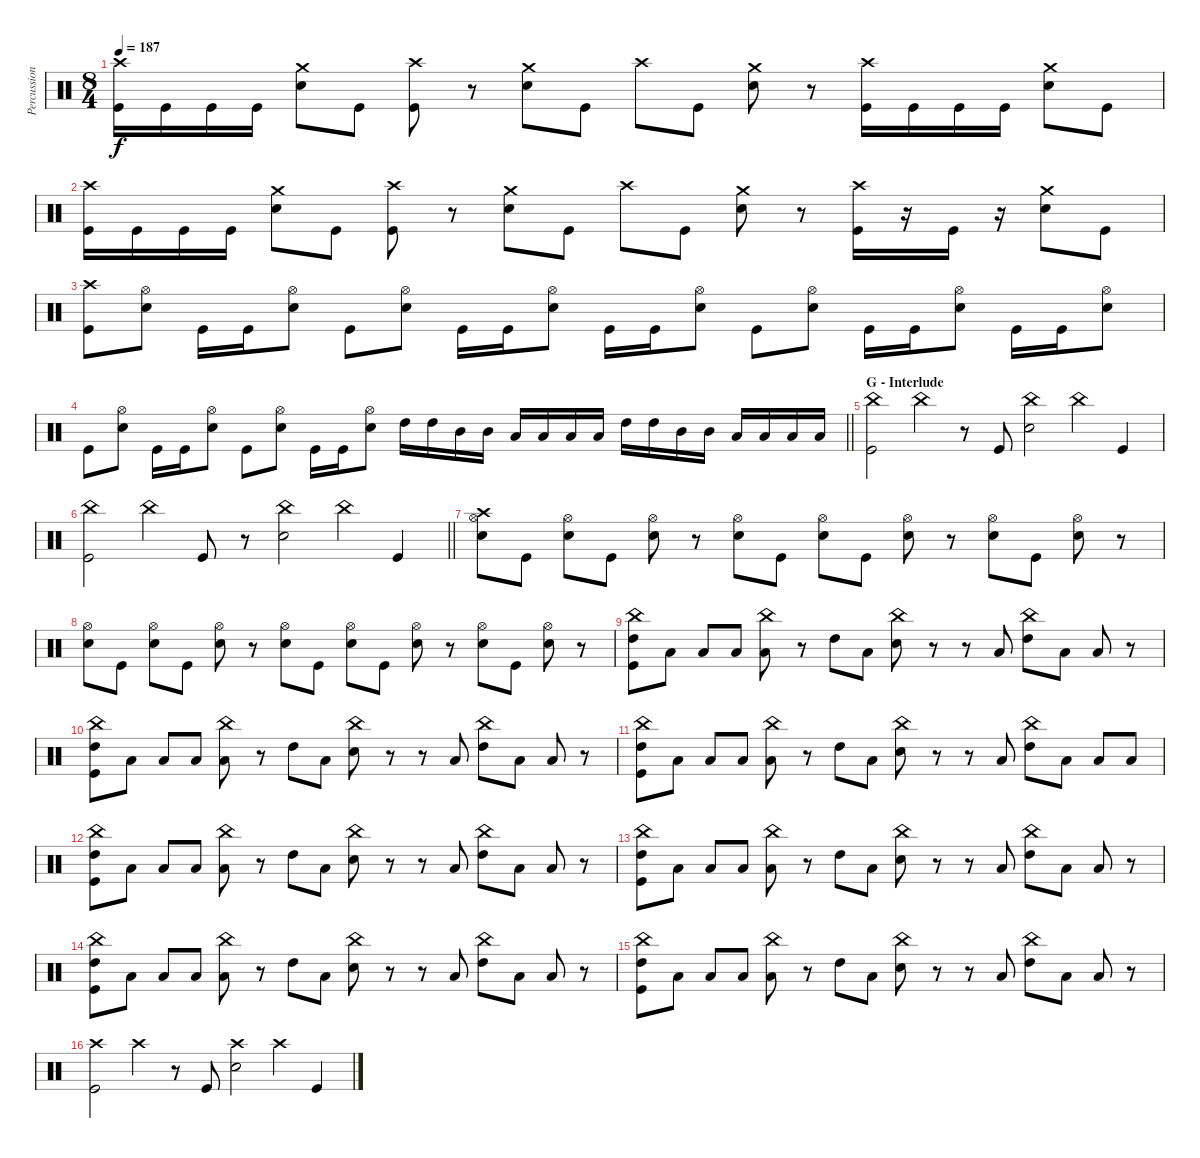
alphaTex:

\track ("Percussions" "Percussion") {instrument percussion}
\staff {score}
\articulation defaults
\ts (8 4)
\tempo 187
\clef neutral
\ks c
("Crash high (hit)" "Kick (hit)").16{dy f} "Kick (hit)".16 "Kick (hit)".16 "Kick (hit)".16 ("Crash medium (hit)" "Snare (hit) 2").8 "Kick (hit)".8 ("Crash high (hit)" "Kick (hit)").8 r.8 ("Crash medium (hit)" "Snare (hit) 2").8 "Kick (hit)".8 "Crash high (hit)".8 "Kick (hit)".8 ("Crash medium (hit)" "Snare (hit) 2").8 r.8 ("Crash high (hit)" "Kick (hit)").16 "Kick (hit)".16 "Kick (hit)".16 "Kick (hit)".16 ("Crash medium (hit)" "Snare (hit) 2").8 "Kick (hit)".8 |
("Crash high (hit)" "Kick (hit)").16 "Kick (hit)".16 "Kick (hit)".16 "Kick (hit)".16 ("Crash medium (hit)" "Snare (hit) 2").8 "Kick (hit)".8 ("Crash high (hit)" "Kick (hit)").8 r.8 ("Crash medium (hit)" "Snare (hit) 2").8 "Kick (hit)".8 "Crash high (hit)".8 "Kick (hit)".8 ("Crash medium (hit)" "Snare (hit) 2").8 r.8 ("Crash high (hit)" "Kick (hit)").16 r.16 "Kick (hit)".16 r.16 ("Crash medium (hit)" "Snare (hit) 2").8 "Kick (hit)".8 |
("Crash high (hit)" "Kick (hit)").8 ("Hi-Hat (open)" "Snare (hit) 2").8 "Kick (hit)".16 "Kick (hit)".16 ("Hi-Hat (open)" "Snare (hit) 2").8 "Kick (hit)".8 ("Hi-Hat (open)" "Snare (hit) 2").8 "Kick (hit)".16 "Kick (hit)".16 ("Hi-Hat (open)" "Snare (hit) 2").8 "Kick (hit)".16 "Kick (hit)".16 ("Hi-Hat (open)" "Snare (hit) 2").8 "Kick (hit)".8 ("Hi-Hat (open)" "Snare (hit) 2").8 "Kick (hit)".16 "Kick (hit)".16 ("Hi-Hat (open)" "Snare (hit) 2").8 "Kick (hit)".16 "Kick (hit)".16 ("Hi-Hat (open)" "Snare (hit) 2").8 |
\barLineRight lightlight "Kick (hit)".8
("Hi-Hat (open)" "Snare (hit) 2").8 "Kick (hit)".16 "Kick (hit)".16 ("Hi-Hat (open)" "Snare (hit) 2").8 "Kick (hit)".8 ("Hi-Hat (open)" "Snare (hit) 2").8 "Kick (hit)".16 "Kick (hit)".16 ("Hi-Hat (open)" "Snare (hit) 2").8 "High Tom (hit)".16 "High Tom (hit)".16 "Mid Tom (hit)".16 "Mid Tom (hit)".16 "Low Tom (hit)".16 "Low Tom (hit)".16 "Low Tom (hit)".16 "Low Tom (hit)".16 "High Tom (hit)".16 "High Tom (hit)".16 "Mid Tom (hit)".16 "Mid Tom (hit)".16 "Low Tom (hit)".16 "Low Tom (hit)".16 "Low Floor Tom (hit)".16 "Low Floor Tom (hit)".16 |
\section ("" "G - Interlude")
("China (hit)" "Kick (hit)").2 "China (hit)".4 r.8 "Kick (hit)".8 ("China (hit)" "Snare (hit) 2").2 "China (hit)".4 "Kick (hit)".4 |
\barLineRight lightlight
("China (hit)" "Kick (hit)").2 "China (hit)".4 "Kick (hit)".8 r.8 ("China (hit)" "Snare (hit) 2").2 "China (hit)".4 "Kick (hit)".4 |
("Crash high (hit)" "Hi-Hat (open)" "Snare (hit) 2").8 "Kick (hit)".8 ("Hi-Hat (open)" "Snare (hit) 2").8 "Kick (hit)".8 ("Hi-Hat (open)" "Snare (hit) 2").8 r.8 ("Hi-Hat (open)" "Snare (hit) 2").8 "Kick (hit)".8 ("Hi-Hat (open)" "Snare (hit) 2").8 "Kick (hit)".8 ("Hi-Hat (open)" "Snare (hit) 2").8 r.8 ("Hi-Hat (open)" "Snare (hit) 2").8 "Kick (hit)".8 ("Hi-Hat (open)" "Snare (hit) 2").8 r.8 |
("Hi-Hat (open)" "Snare (hit) 2").8 "Kick (hit)".8 ("Hi-Hat (open)" "Snare (hit) 2").8 "Kick (hit)".8 ("Hi-Hat (open)" "Snare (hit) 2").8 r.8 ("Hi-Hat (open)" "Snare (hit) 2").8 "Kick (hit)".8 ("Hi-Hat (open)" "Snare (hit) 2").8 "Kick (hit)".8 ("Hi-Hat (open)" "Snare (hit) 2").8 r.8 ("Hi-Hat (open)" "Snare (hit) 2").8 "Kick (hit)".8 ("Hi-Hat (open)" "Snare (hit) 2").8 r.8 |
("China (hit)" "High Tom (hit)" "Kick (hit)").8 "Low Floor Tom (hit)".8 "Low Tom (hit)".8 "Low Floor Tom (hit)".8 ("China (hit)" "Low Tom (hit)").8 r.8 "High Tom (hit)".8 "Low Floor Tom (hit)".8 ("China (hit)" "Snare (hit) 2").8 r.8 r.8 "Low Floor Tom (hit)".8 ("China (hit)" "High Tom (hit)").8 "Low Tom (hit)".8 "Low Floor Tom (hit)".8 r.8 |
("China (hit)" "High Tom (hit)" "Kick (hit)").8 "Low Floor Tom (hit)".8 "Low Tom (hit)".8 "Low Floor Tom (hit)".8 ("China (hit)" "Low Tom (hit)").8 r.8 "High Tom (hit)".8 "Low Floor Tom (hit)".8 ("China (hit)" "Snare (hit) 2").8 r.8 r.8 "Low Floor Tom (hit)".8 ("China (hit)" "High Tom (hit)").8 "Low Tom (hit)".8 "Low Floor Tom (hit)".8 r.8 |
("China (hit)" "High Tom (hit)" "Kick (hit)").8 "Low Floor Tom (hit)".8 "Low Tom (hit)".8 "Low Floor Tom (hit)".8 ("China (hit)" "Low Tom (hit)").8 r.8 "High Tom (hit)".8 "Low Floor Tom (hit)".8 ("China (hit)" "Snare (hit) 2").8 r.8 r.8 "Low Floor Tom (hit)".8 ("China (hit)" "High Tom (hit)").8 "Low Tom (hit)".8 "Low Floor Tom (hit)".8 "Low Tom (hit)".8 |
("China (hit)" "High Tom (hit)" "Kick (hit)").8 "Low Floor Tom (hit)".8 "Low Tom (hit)".8 "Low Floor Tom (hit)".8 ("China (hit)" "Low Tom (hit)").8 r.8 "High Tom (hit)".8 "Low Floor Tom (hit)".8 ("China (hit)" "Snare (hit) 2").8 r.8 r.8 "Low Floor Tom (hit)".8 ("China (hit)" "High Tom (hit)").8 "Low Tom (hit)".8 "Low Floor Tom (hit)".8 r.8 |
("China (hit)" "High Tom (hit)" "Kick (hit)").8 "Low Floor Tom (hit)".8 "Low Tom (hit)".8 "Low Floor Tom (hit)".8 ("China (hit)" "Low Tom (hit)").8 r.8 "High Tom (hit)".8 "Low Floor Tom (hit)".8 ("China (hit)" "Snare (hit) 2").8 r.8 r.8 "Low Floor Tom (hit)".8 ("China (hit)" "High Tom (hit)").8 "Low Tom (hit)".8 "Low Floor Tom (hit)".8 r.8 |
("China (hit)" "High Tom (hit)" "Kick (hit)").8 "Low Floor Tom (hit)".8 "Low Tom (hit)".8 "Low Floor Tom (hit)".8 ("China (hit)" "Low Tom (hit)").8 r.8 "High Tom (hit)".8 "Low Floor Tom (hit)".8 ("China (hit)" "Snare (hit) 2").8 r.8 r.8 "Low Floor Tom (hit)".8 ("China (hit)" "High Tom (hit)").8 "Low Tom (hit)".8 "Low Floor Tom (hit)".8 r.8 |
("China (hit)" "High Tom (hit)" "Kick (hit)").8 "Low Floor Tom (hit)".8 "Low Tom (hit)".8 "Low Floor Tom (hit)".8 ("China (hit)" "Low Tom (hit)").8 r.8 "High Tom (hit)".8 "Low Floor Tom (hit)".8 ("China (hit)" "Snare (hit) 2").8 r.8 r.8 "Low Floor Tom (hit)".8 ("China (hit)" "High Tom (hit)").8 "Low Tom (hit)".8 "Low Floor Tom (hit)".8 r.8 |
("Crash high (hit)" "Kick (hit)").2 "Crash high (hit)".4 r.8 "Kick (hit)".8 ("Crash high (hit)" "Snare (hit) 2").2 "Crash high (hit)".4 "Kick (hit)".4
